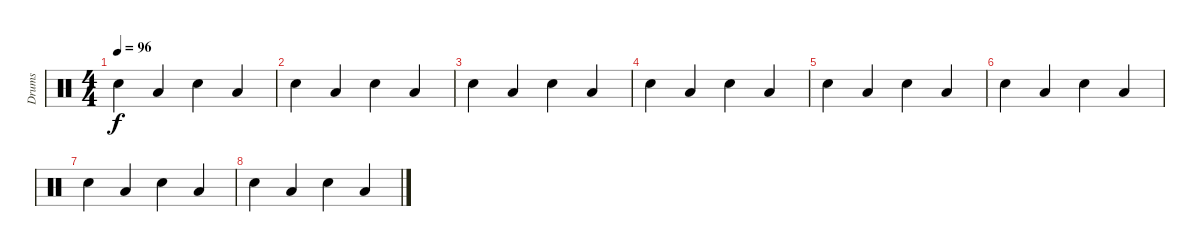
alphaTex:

\track ("Drums" "Drums") {instrument percussion}
\staff {score}
\articulation defaults
\ts (4 4)
\tempo 96
\clef neutral
\ks c "Snare (hit) 2".4{dy f} "Low Floor Tom (hit)".4 "Snare (hit) 2".4 "Low Floor Tom (hit)".4
|
"Snare (hit) 2".4 "Low Floor Tom (hit)".4 "Snare (hit) 2".4 "Low Floor Tom (hit)".4 |
"Snare (hit) 2".4 "Low Floor Tom (hit)".4 "Snare (hit) 2".4 "Low Floor Tom (hit)".4 |
"Snare (hit) 2".4 "Low Floor Tom (hit)".4 "Snare (hit) 2".4 "Low Floor Tom (hit)".4 |
"Snare (hit) 2".4 "Low Floor Tom (hit)".4 "Snare (hit) 2".4 "Low Floor Tom (hit)".4 |
"Snare (hit) 2".4 "Low Floor Tom (hit)".4 "Snare (hit) 2".4 "Low Floor Tom (hit)".4 |
"Snare (hit) 2".4 "Low Floor Tom (hit)".4 "Snare (hit) 2".4 "Low Floor Tom (hit)".4 |
"Snare (hit) 2".4 "Low Floor Tom (hit)".4 "Snare (hit) 2".4 "Low Floor Tom (hit)".4
